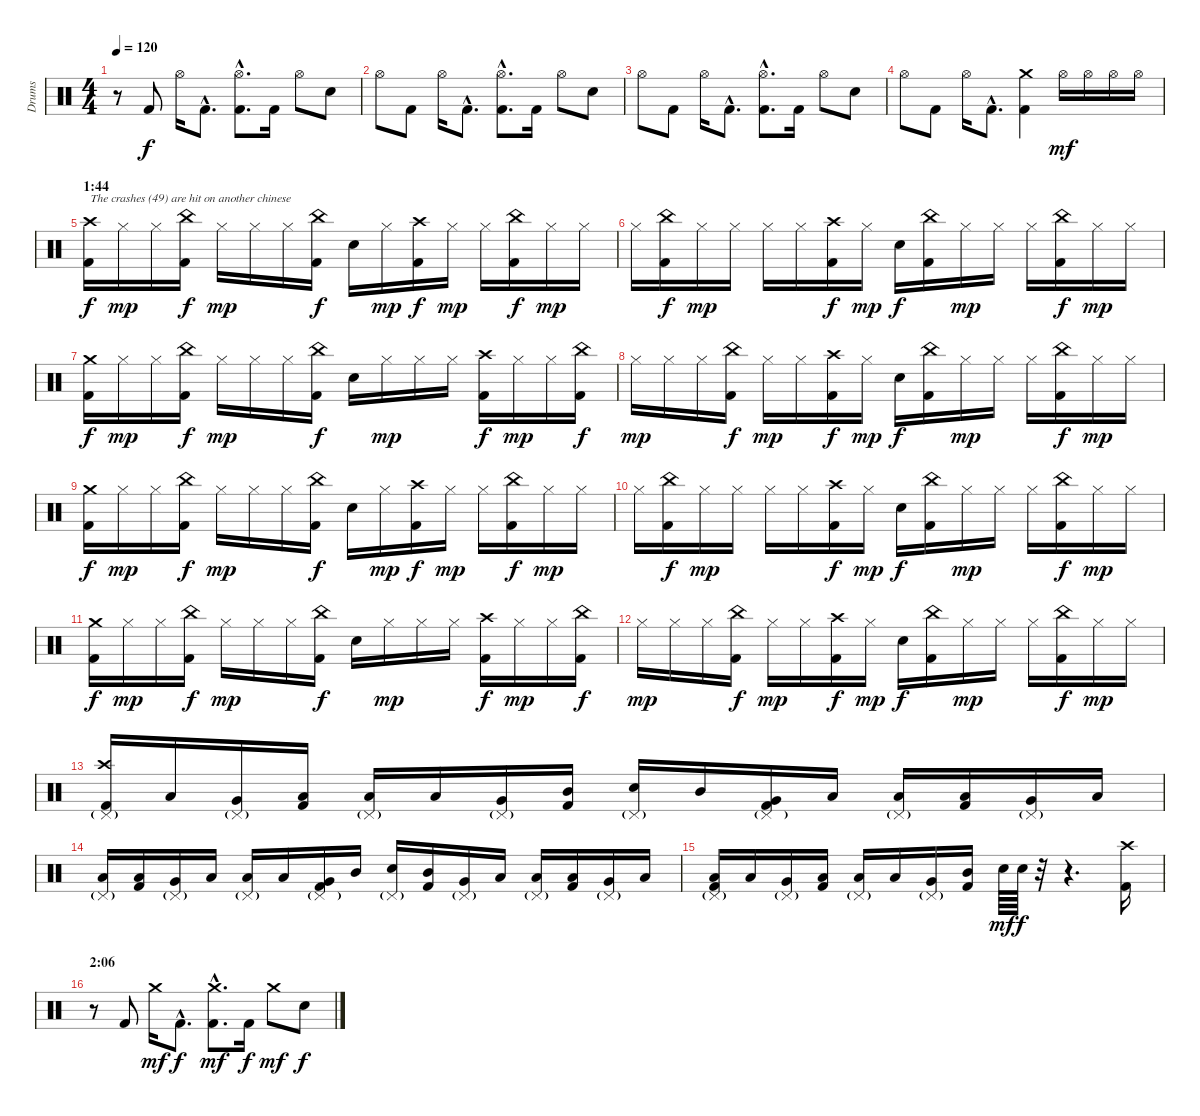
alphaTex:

\track ("Drums" "Drums") {instrument percussion}
\staff {score}
\articulation defaults
\ts (4 4)
\tempo 120
\clef neutral
\ks c
r.8{dy f} "Kick (hit) 2".8 "Hi-Hat (open)".16 "Kick (hit) 2"{hac}.8{d} ("Hi-Hat (open)"{hac} "Kick (hit) 2"{hac}).8{d} "Kick (hit) 2".16 "Hi-Hat (open)".8 "Electric Snare (hit)".8 |
"Hi-Hat (open)".8 "Kick (hit) 2".8 "Hi-Hat (open)".16 "Kick (hit) 2"{hac}.8{d} ("Hi-Hat (open)"{hac} "Kick (hit) 2"{hac}).8{d} "Kick (hit) 2".16 "Hi-Hat (open)".8 "Electric Snare (hit)".8 |
"Hi-Hat (open)".8 "Kick (hit) 2".8 "Hi-Hat (open)".16 "Kick (hit) 2"{hac}.8{d} ("Hi-Hat (open)"{hac} "Kick (hit) 2"{hac}).8{d} "Kick (hit) 2".16 "Hi-Hat (open)".8 "Electric Snare (hit)".8 |
"Hi-Hat (open)".8 "Kick (hit) 2".8 "Hi-Hat (open)".16 "Kick (hit) 2"{hac}.8{d} ("Crash medium (hit)" "Kick (hit) 2").4 "Hi-Hat (open)".16{dy mf} "Hi-Hat (open)".16 "Hi-Hat (open)".16 "Hi-Hat (open)".16 |
\section ("" "1:44")
("Crash high (hit)" "Kick (hit) 2").16{txt "The crashes (49) are hit on another chinese" dy f} "Hi-Hat (closed)".16{dy mp} "Hi-Hat (closed)".16 ("China (hit)" "Kick (hit) 2").16{dy f} "Hi-Hat (closed)".16{dy mp} "Hi-Hat (closed)".16 "Hi-Hat (closed)".16 ("China (hit)" "Kick (hit) 2").16{dy f} "Electric Snare (hit)".16 "Hi-Hat (closed)".16{dy mp} ("Crash high (hit)" "Kick (hit) 2").16{dy f} "Hi-Hat (closed)".16{dy mp} "Hi-Hat (closed)".16 ("China (hit)" "Kick (hit) 2").16{dy f} "Hi-Hat (closed)".16{dy mp} "Hi-Hat (closed)".16 |
"Hi-Hat (closed)".16 ("China (hit)" "Kick (hit) 2").16{dy f} "Hi-Hat (closed)".16{dy mp} "Hi-Hat (closed)".16 "Hi-Hat (closed)".16 "Hi-Hat (closed)".16 ("Crash high (hit)" "Kick (hit) 2").16{dy f} "Hi-Hat (closed)".16{dy mp} "Electric Snare (hit)".16{dy f} ("China (hit)" "Kick (hit) 2").16 "Hi-Hat (closed)".16{dy mp} "Hi-Hat (closed)".16 "Hi-Hat (closed)".16 ("China (hit)" "Kick (hit) 2").16{dy f} "Hi-Hat (closed)".16{dy mp} "Hi-Hat (closed)".16 |
("Crash medium (hit)" "Kick (hit) 2").16{dy f} "Hi-Hat (closed)".16{dy mp} "Hi-Hat (closed)".16 ("China (hit)" "Kick (hit) 2").16{dy f} "Hi-Hat (closed)".16{dy mp} "Hi-Hat (closed)".16 "Hi-Hat (closed)".16 ("China (hit)" "Kick (hit) 2").16{dy f} "Electric Snare (hit)".16 "Hi-Hat (closed)".16{dy mp} "Hi-Hat (closed)".16 "Hi-Hat (closed)".16 ("Crash high (hit)" "Kick (hit) 2").16{dy f} "Hi-Hat (closed)".16{dy mp} "Hi-Hat (closed)".16 ("China (hit)" "Kick (hit) 2").16{dy f} |
"Hi-Hat (closed)".16{dy mp} "Hi-Hat (closed)".16 "Hi-Hat (closed)".16 ("China (hit)" "Kick (hit) 2").16{dy f} "Hi-Hat (closed)".16{dy mp} "Hi-Hat (closed)".16 ("Crash high (hit)" "Kick (hit) 2").16{dy f} "Hi-Hat (closed)".16{dy mp} "Electric Snare (hit)".16{dy f} ("China (hit)" "Kick (hit) 2").16 "Hi-Hat (closed)".16{dy mp} "Hi-Hat (closed)".16 "Hi-Hat (closed)".16 ("China (hit)" "Kick (hit) 2").16{dy f} "Hi-Hat (closed)".16{dy mp} "Hi-Hat (closed)".16 |
("Crash medium (hit)" "Kick (hit) 2").16{dy f} "Hi-Hat (closed)".16{dy mp} "Hi-Hat (closed)".16 ("China (hit)" "Kick (hit) 2").16{dy f} "Hi-Hat (closed)".16{dy mp} "Hi-Hat (closed)".16 "Hi-Hat (closed)".16 ("China (hit)" "Kick (hit) 2").16{dy f} "Electric Snare (hit)".16 "Hi-Hat (closed)".16{dy mp} ("Crash high (hit)" "Kick (hit) 2").16{dy f} "Hi-Hat (closed)".16{dy mp} "Hi-Hat (closed)".16 ("China (hit)" "Kick (hit) 2").16{dy f} "Hi-Hat (closed)".16{dy mp} "Hi-Hat (closed)".16 |
"Hi-Hat (closed)".16 ("China (hit)" "Kick (hit) 2").16{dy f} "Hi-Hat (closed)".16{dy mp} "Hi-Hat (closed)".16 "Hi-Hat (closed)".16 "Hi-Hat (closed)".16 ("Crash high (hit)" "Kick (hit) 2").16{dy f} "Hi-Hat (closed)".16{dy mp} "Electric Snare (hit)".16{dy f} ("China (hit)" "Kick (hit) 2").16 "Hi-Hat (closed)".16{dy mp} "Hi-Hat (closed)".16 "Hi-Hat (closed)".16 ("China (hit)" "Kick (hit) 2").16{dy f} "Hi-Hat (closed)".16{dy mp} "Hi-Hat (closed)".16 |
("Crash medium (hit)" "Kick (hit) 2").16{dy f} "Hi-Hat (closed)".16{dy mp} "Hi-Hat (closed)".16 ("China (hit)" "Kick (hit) 2").16{dy f} "Hi-Hat (closed)".16{dy mp} "Hi-Hat (closed)".16 "Hi-Hat (closed)".16 ("China (hit)" "Kick (hit) 2").16{dy f} "Electric Snare (hit)".16 "Hi-Hat (closed)".16{dy mp} "Hi-Hat (closed)".16 "Hi-Hat (closed)".16 ("Crash high (hit)" "Kick (hit) 2").16{dy f} "Hi-Hat (closed)".16{dy mp} "Hi-Hat (closed)".16 ("China (hit)" "Kick (hit) 2").16{dy f} |
"Hi-Hat (closed)".16{dy mp} "Hi-Hat (closed)".16 "Hi-Hat (closed)".16 ("China (hit)" "Kick (hit) 2").16{dy f} "Hi-Hat (closed)".16{dy mp} "Hi-Hat (closed)".16 ("Crash high (hit)" "Kick (hit) 2").16{dy f} "Hi-Hat (closed)".16{dy mp} "Electric Snare (hit)".16{dy f} ("China (hit)" "Kick (hit) 2").16 "Hi-Hat (closed)".16{dy mp} "Hi-Hat (closed)".16 "Hi-Hat (closed)".16 ("China (hit)" "Kick (hit) 2").16{dy f} "Hi-Hat (closed)".16{dy mp} "Hi-Hat (closed)".16 |
("Crash high (hit)" "Pedal Hi-Hat (hit)"{g} "Kick (hit) 2").16 "Low Tom (hit)".16 ("Very Low Tom (hit)" "Pedal Hi-Hat (hit)"{g}).16 ("Low Tom (hit)" "Kick (hit) 2").16 ("Low Floor Tom (hit)" "Pedal Hi-Hat (hit)"{g}).16 "Low Tom (hit)".16 ("Very Low Tom (hit)" "Pedal Hi-Hat (hit)"{g}).16 ("Mid Tom (hit)" "Kick (hit) 2").16 ("Pedal Hi-Hat (hit)"{g} "Electric Snare (hit)").16 "Mid Tom (hit)".16 ("Very Low Tom (hit)" "Pedal Hi-Hat (hit)"{g} "Kick (hit) 2").16 "Low Tom (hit)".16 ("Low Floor Tom (hit)" "Pedal Hi-Hat (hit)"{g}).16 ("Low Tom (hit)" "Kick (hit) 2").16 ("Very Low Tom (hit)" "Pedal Hi-Hat (hit)"{g}).16 "Low Tom (hit)".16 |
("Low Floor Tom (hit)" "Pedal Hi-Hat (hit)"{g}).16 ("Low Tom (hit)" "Kick (hit) 2").16 ("Very Low Tom (hit)" "Pedal Hi-Hat (hit)"{g}).16 "Low Tom (hit)".16 ("Low Floor Tom (hit)" "Pedal Hi-Hat (hit)"{g}).16 "Low Tom (hit)".16 ("Very Low Tom (hit)" "Pedal Hi-Hat (hit)"{g} "Kick (hit) 2").16 "Mid Tom (hit)".16 ("Pedal Hi-Hat (hit)"{g} "Electric Snare (hit)").16 ("Mid Tom (hit)" "Kick (hit) 2").16 ("Very Low Tom (hit)" "Pedal Hi-Hat (hit)"{g}).16 "Low Tom (hit)".16 ("Low Floor Tom (hit)" "Pedal Hi-Hat (hit)"{g}).16 ("Low Tom (hit)" "Kick (hit) 2").16 ("Very Low Tom (hit)" "Pedal Hi-Hat (hit)"{g}).16 "Low Tom (hit)".16 |
("Low Floor Tom (hit)" "Pedal Hi-Hat (hit)"{g} "Kick (hit) 2").16 "Low Tom (hit)".16 ("Very Low Tom (hit)" "Pedal Hi-Hat (hit)"{g}).16 ("Low Tom (hit)" "Kick (hit) 2").16 ("Low Floor Tom (hit)" "Pedal Hi-Hat (hit)"{g}).16 "Low Tom (hit)".16 ("Very Low Tom (hit)" "Pedal Hi-Hat (hit)"{g}).16 ("Mid Tom (hit)" "Kick (hit) 2").16 "Electric Snare (hit)".64{dy mf} "Electric Snare (hit)".64{dy f} r.32 r.4{d} ("Crash high (hit)" "Kick (hit) 2").16 |
\section ("" "2:06")
r.8 "Kick (hit) 2".8 "Crash medium (hit)".16{dy mf} "Kick (hit) 2"{hac}.8{d dy f} ("Crash medium (hit)"{hac} "Kick (hit) 2"{hac}).8{d dy mf} "Kick (hit) 2".16{dy f} "Crash medium (hit)".8{dy mf} "Electric Snare (hit)".8{dy f}
